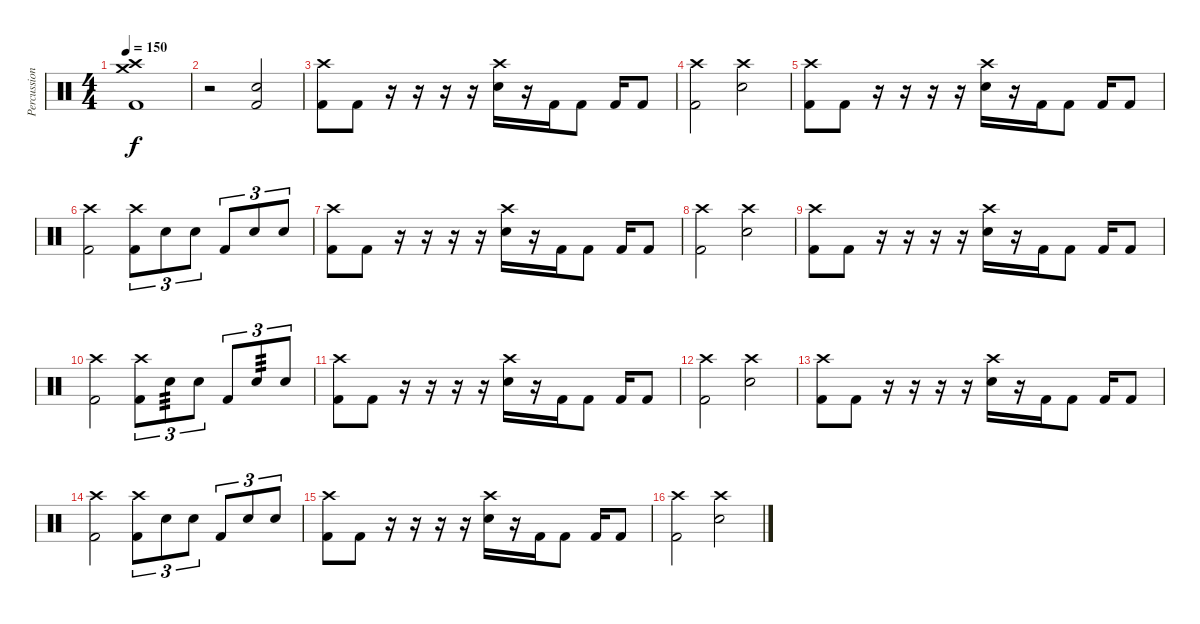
\track ("Percussion" "Percussion") {instrument percussion}
\staff {score}
\articulation defaults
\ts (4 4)
\tempo 150
\clef neutral
\ks c
("Crash high (hit)" "Crash medium (hit)" "Kick (hit) 2").1{dy f} |
r.2 ("Electric Snare (hit)" "Kick (hit) 2").2 |
("Crash high (hit)" "Kick (hit) 2").8 "Kick (hit) 2".8 r.16 r.16 r.16 r.16 ("Crash high (hit)" "Electric Snare (hit)").16 r.16 "Kick (hit) 2".16 "Kick (hit) 2".8 "Kick (hit) 2".16 "Kick (hit) 2".8 |
("Crash high (hit)" "Kick (hit) 2").2 ("Crash high (hit)" "Electric Snare (hit)").2 |
("Crash high (hit)" "Kick (hit) 2").8 "Kick (hit) 2".8 r.16 r.16 r.16 r.16 ("Crash high (hit)" "Electric Snare (hit)").16 r.16 "Kick (hit) 2".16 "Kick (hit) 2".8 "Kick (hit) 2".16 "Kick (hit) 2".8 |
("Crash high (hit)" "Kick (hit) 2").2 ("Crash high (hit)" "Kick (hit) 2").8{tu (3 2)} "Electric Snare (hit)".8{tu (3 2)} "Electric Snare (hit)".8{tu (3 2)} "Kick (hit) 2".8{tu (3 2)} "Electric Snare (hit)".8{tu (3 2)} "Electric Snare (hit)".8{tu (3 2)} |
("Crash high (hit)" "Kick (hit) 2").8 "Kick (hit) 2".8 r.16 r.16 r.16 r.16 ("Crash high (hit)" "Electric Snare (hit)").16 r.16 "Kick (hit) 2".16 "Kick (hit) 2".8 "Kick (hit) 2".16 "Kick (hit) 2".8 |
("Crash high (hit)" "Kick (hit) 2").2 ("Crash high (hit)" "Electric Snare (hit)").2 |
("Crash high (hit)" "Kick (hit) 2").8 "Kick (hit) 2".8 r.16 r.16 r.16 r.16 ("Crash high (hit)" "Electric Snare (hit)").16 r.16 "Kick (hit) 2".16 "Kick (hit) 2".8 "Kick (hit) 2".16 "Kick (hit) 2".8 |
("Crash high (hit)" "Kick (hit) 2").2 ("Crash high (hit)" "Kick (hit) 2").8{tu (3 2)} "Electric Snare (hit)".8{tu (3 2) tp 3} "Electric Snare (hit)".8{tu (3 2)} "Kick (hit) 2".8{tu (3 2)} "Electric Snare (hit)".8{tu (3 2) tp 3} "Electric Snare (hit)".8{tu (3 2)} |
("Crash high (hit)" "Kick (hit) 2").8 "Kick (hit) 2".8 r.16 r.16 r.16 r.16 ("Crash high (hit)" "Electric Snare (hit)").16 r.16 "Kick (hit) 2".16 "Kick (hit) 2".8 "Kick (hit) 2".16 "Kick (hit) 2".8 |
("Crash high (hit)" "Kick (hit) 2").2 ("Crash high (hit)" "Electric Snare (hit)").2 |
("Crash high (hit)" "Kick (hit) 2").8 "Kick (hit) 2".8 r.16 r.16 r.16 r.16 ("Crash high (hit)" "Electric Snare (hit)").16 r.16 "Kick (hit) 2".16 "Kick (hit) 2".8 "Kick (hit) 2".16 "Kick (hit) 2".8 |
("Crash high (hit)" "Kick (hit) 2").2 ("Crash high (hit)" "Kick (hit) 2").8{tu (3 2)} "Electric Snare (hit)".8{tu (3 2)} "Electric Snare (hit)".8{tu (3 2)} "Kick (hit) 2".8{tu (3 2)} "Electric Snare (hit)".8{tu (3 2)} "Electric Snare (hit)".8{tu (3 2)} |
("Crash high (hit)" "Kick (hit) 2").8 "Kick (hit) 2".8 r.16 r.16 r.16 r.16 ("Crash high (hit)" "Electric Snare (hit)").16 r.16 "Kick (hit) 2".16 "Kick (hit) 2".8 "Kick (hit) 2".16 "Kick (hit) 2".8 |
("Crash high (hit)" "Kick (hit) 2").2 ("Crash high (hit)" "Electric Snare (hit)").2
